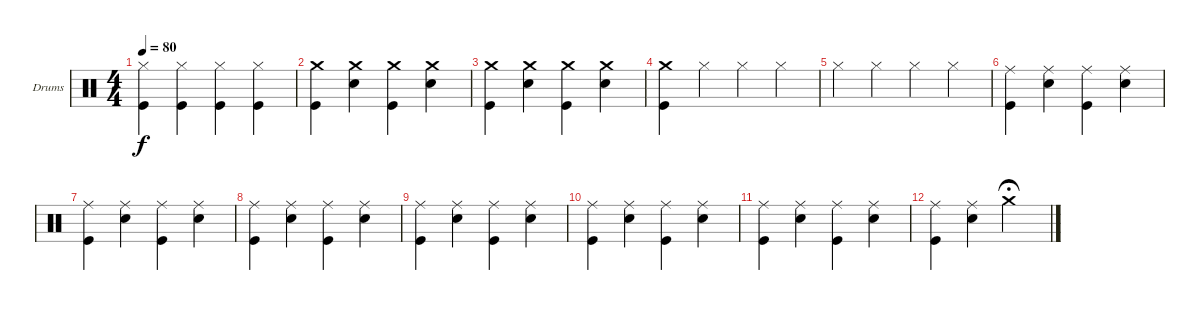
\bracketExtendMode groupsimilarinstruments
\firstSystemTrackNameOrientation horizontal
\otherSystemsTrackNameOrientation horizontal
\track ("Drumkit" "Drums") {instrument percussion}
\staff {score}
\articulation defaults
\ts (4 4)
\tempo 80
\clef neutral
\ks c
("Hi-Hat (closed)" "Kick (hit)").4{dy f} ("Hi-Hat (closed)" "Kick (hit)").4 ("Hi-Hat (closed)" "Kick (hit)").4 ("Hi-Hat (closed)" "Kick (hit)").4 |
("Crash medium (hit)" "Kick (hit)").4 ("Crash medium (hit)" "Snare (hit) 2").4 ("Crash medium (hit)" "Kick (hit)").4 ("Crash medium (hit)" "Snare (hit) 2").4 |
("Crash medium (hit)" "Kick (hit)").4 ("Crash medium (hit)" "Snare (hit) 2").4 ("Crash medium (hit)" "Kick (hit)").4 ("Crash medium (hit)" "Snare (hit) 2").4 |
("Crash medium (hit)" "Kick (hit)").4 "Hi-Hat (closed)".4 "Hi-Hat (closed)".4 "Hi-Hat (closed)".4 |
"Hi-Hat (closed)".4 "Hi-Hat (closed)".4 "Hi-Hat (closed)".4 "Hi-Hat (closed)".4 |
("Ride (middle)" "Kick (hit)").4 ("Ride (middle)" "Snare (hit) 2").4 ("Ride (middle)" "Kick (hit)").4 ("Ride (middle)" "Snare (hit) 2").4 |
("Ride (middle)" "Kick (hit)").4 ("Ride (middle)" "Snare (hit) 2").4 ("Ride (middle)" "Kick (hit)").4 ("Ride (middle)" "Snare (hit) 2").4 |
("Ride (middle)" "Kick (hit)").4 ("Ride (middle)" "Snare (hit) 2").4 ("Ride (middle)" "Kick (hit)").4 ("Ride (middle)" "Snare (hit) 2").4 |
("Ride (middle)" "Kick (hit)").4 ("Ride (middle)" "Snare (hit) 2").4 ("Ride (middle)" "Kick (hit)").4 ("Ride (middle)" "Snare (hit) 2").4 |
("Ride (middle)" "Kick (hit)").4 ("Ride (middle)" "Snare (hit) 2").4 ("Ride (middle)" "Kick (hit)").4 ("Ride (middle)" "Snare (hit) 2").4 |
("Ride (middle)" "Kick (hit)").4 ("Ride (middle)" "Snare (hit) 2").4 ("Ride (middle)" "Kick (hit)").4 ("Ride (middle)" "Snare (hit) 2").4 |
("Ride (middle)" "Kick (hit)").4 ("Ride (middle)" "Snare (hit) 2").4 "Crash medium (hit)".2{fermata (medium 0.5)}
